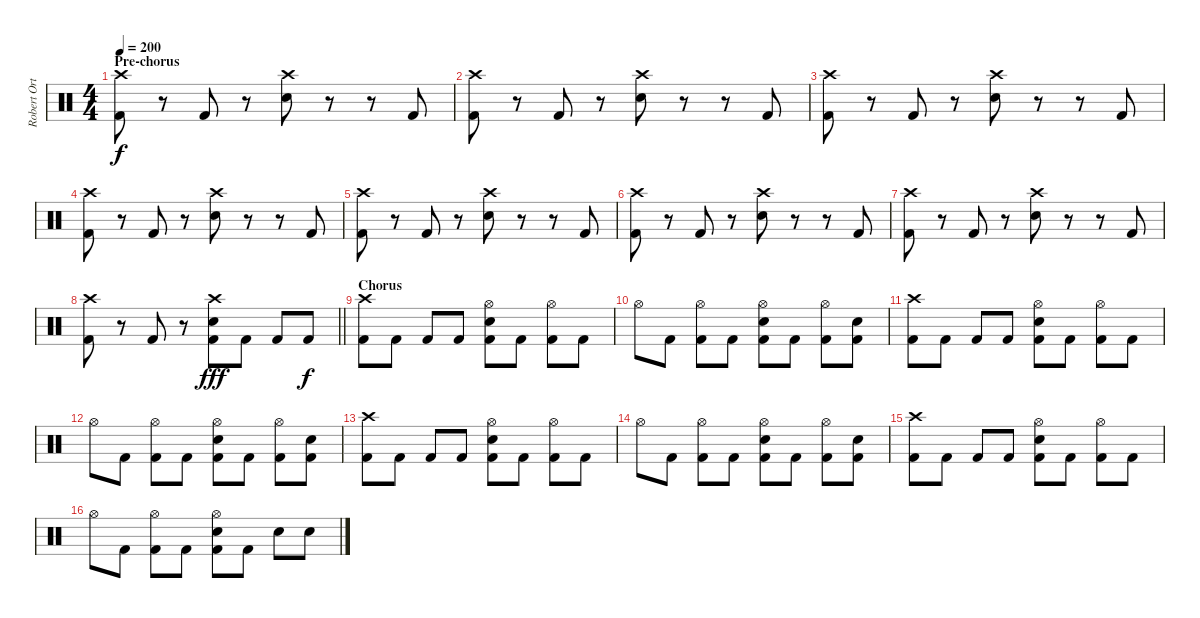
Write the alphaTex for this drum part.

\track ("Robert Ortiz" "Robert Ort") {instrument percussion}
\staff {score}
\articulation defaults
\ts (4 4)
\section ("" "Pre-chorus")
\tempo 200
\clef neutral
\ks c
("Crash high (hit)" "Kick (hit) 2").8{dy f} r.8 "Kick (hit) 2".8 r.8 ("Crash high (hit)" "Electric Snare (hit)").8 r.8 r.8 "Kick (hit) 2".8 |
("Crash high (hit)" "Kick (hit) 2").8 r.8 "Kick (hit) 2".8 r.8 ("Crash high (hit)" "Electric Snare (hit)").8 r.8 r.8 "Kick (hit) 2".8 |
("Crash high (hit)" "Kick (hit) 2").8 r.8 "Kick (hit) 2".8 r.8 ("Crash high (hit)" "Electric Snare (hit)").8 r.8 r.8 "Kick (hit) 2".8 |
("Crash high (hit)" "Kick (hit) 2").8 r.8 "Kick (hit) 2".8 r.8 ("Crash high (hit)" "Electric Snare (hit)").8 r.8 r.8 "Kick (hit) 2".8 |
("Crash high (hit)" "Kick (hit) 2").8 r.8 "Kick (hit) 2".8 r.8 ("Crash high (hit)" "Electric Snare (hit)").8 r.8 r.8 "Kick (hit) 2".8 |
("Crash high (hit)" "Kick (hit) 2").8 r.8 "Kick (hit) 2".8 r.8 ("Crash high (hit)" "Electric Snare (hit)").8 r.8 r.8 "Kick (hit) 2".8 |
("Crash high (hit)" "Kick (hit) 2").8 r.8 "Kick (hit) 2".8 r.8 ("Crash high (hit)" "Electric Snare (hit)").8 r.8 r.8 "Kick (hit) 2".8 |
\barLineRight lightlight
("Crash high (hit)" "Kick (hit) 2").8 r.8 "Kick (hit) 2".8 r.8 ("Crash high (hit)" "Electric Snare (hit)" "Kick (hit) 2").8{dy fff} "Kick (hit) 2".8 "Kick (hit) 2".8 "Kick (hit) 2".8{dy f} |
\section ("" "Chorus")
("Crash high (hit)" "Kick (hit) 2").8{volume 12} "Kick (hit) 2".8 "Kick (hit) 2".8 "Kick (hit) 2".8 ("Hi-Hat (open)" "Electric Snare (hit)" "Kick (hit) 2").8 "Kick (hit) 2".8 ("Hi-Hat (open)" "Kick (hit) 2").8 "Kick (hit) 2".8 |
"Hi-Hat (open)".8 "Kick (hit) 2".8 ("Hi-Hat (open)" "Kick (hit) 2").8 "Kick (hit) 2".8 ("Hi-Hat (open)" "Electric Snare (hit)" "Kick (hit) 2").8 "Kick (hit) 2".8 ("Hi-Hat (open)" "Kick (hit) 2").8 ("Electric Snare (hit)" "Kick (hit) 2").8 |
("Crash high (hit)" "Kick (hit) 2").8 "Kick (hit) 2".8 "Kick (hit) 2".8 "Kick (hit) 2".8 ("Hi-Hat (open)" "Electric Snare (hit)" "Kick (hit) 2").8 "Kick (hit) 2".8 ("Hi-Hat (open)" "Kick (hit) 2").8 "Kick (hit) 2".8 |
"Hi-Hat (open)".8 "Kick (hit) 2".8 ("Hi-Hat (open)" "Kick (hit) 2").8 "Kick (hit) 2".8 ("Hi-Hat (open)" "Electric Snare (hit)" "Kick (hit) 2").8 "Kick (hit) 2".8 ("Hi-Hat (open)" "Kick (hit) 2").8 ("Electric Snare (hit)" "Kick (hit) 2").8 |
("Crash high (hit)" "Kick (hit) 2").8 "Kick (hit) 2".8 "Kick (hit) 2".8 "Kick (hit) 2".8 ("Hi-Hat (open)" "Electric Snare (hit)" "Kick (hit) 2").8 "Kick (hit) 2".8 ("Hi-Hat (open)" "Kick (hit) 2").8 "Kick (hit) 2".8 |
"Hi-Hat (open)".8 "Kick (hit) 2".8 ("Hi-Hat (open)" "Kick (hit) 2").8 "Kick (hit) 2".8 ("Hi-Hat (open)" "Electric Snare (hit)" "Kick (hit) 2").8 "Kick (hit) 2".8 ("Hi-Hat (open)" "Kick (hit) 2").8 ("Electric Snare (hit)" "Kick (hit) 2").8 |
("Crash high (hit)" "Kick (hit) 2").8 "Kick (hit) 2".8 "Kick (hit) 2".8 "Kick (hit) 2".8 ("Hi-Hat (open)" "Electric Snare (hit)" "Kick (hit) 2").8 "Kick (hit) 2".8 ("Hi-Hat (open)" "Kick (hit) 2").8 "Kick (hit) 2".8 |
"Hi-Hat (open)".8 "Kick (hit) 2".8 ("Hi-Hat (open)" "Kick (hit) 2").8 "Kick (hit) 2".8 ("Hi-Hat (open)" "Electric Snare (hit)" "Kick (hit) 2").8 "Kick (hit) 2".8 "Electric Snare (hit)".8 "Electric Snare (hit)".8
